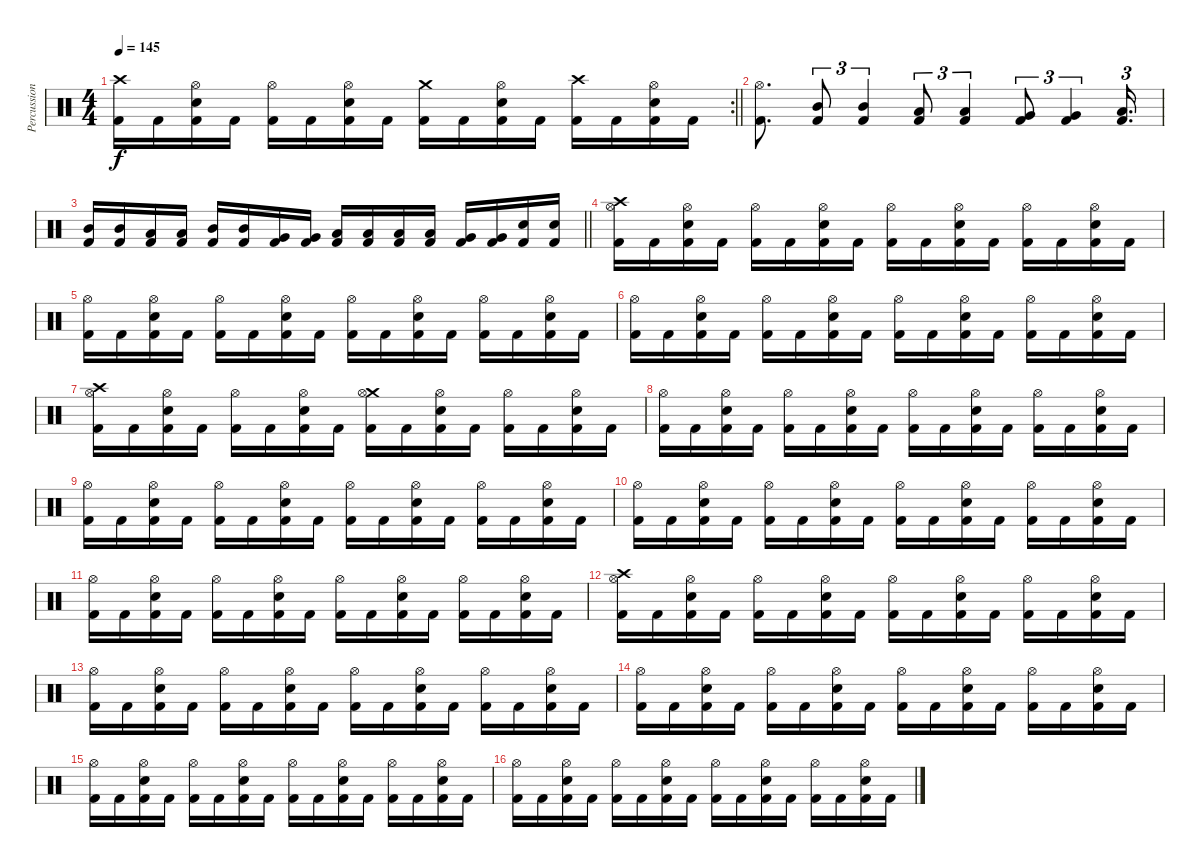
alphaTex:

\track ("Percussion" "Percussion") {instrument percussion}
\staff {score}
\articulation defaults
\rc 2
\ts (4 4)
\tempo 145
\clef neutral
\barLineRight lightlight
\ks c
("Crash high (hit)" "Kick (hit) 2").16{dy f} "Kick (hit) 2".16 ("Hi-Hat (open)" "Electric Snare (hit)" "Kick (hit) 2").16 "Kick (hit) 2".16 ("Hi-Hat (open)" "Kick (hit) 2").16 "Kick (hit) 2".16 ("Hi-Hat (open)" "Electric Snare (hit)" "Kick (hit) 2").16 "Kick (hit) 2".16 ("Crash medium (hit)" "Kick (hit) 2").16 "Kick (hit) 2".16 ("Hi-Hat (open)" "Electric Snare (hit)" "Kick (hit) 2").16 "Kick (hit) 2".16 ("Crash high (hit)" "Kick (hit) 2").16 "Kick (hit) 2".16 ("Hi-Hat (open)" "Electric Snare (hit)" "Kick (hit) 2").16 "Kick (hit) 2".16 |
\section ("" "")
("Hi-Hat (open)" "Kick (hit) 2").8{d} ("Mid Tom (hit)" "Kick (hit) 2").8{tu (3 2)} ("Mid Tom (hit)" "Kick (hit) 2").4{tu (3 2)} ("Low Tom (hit)" "Kick (hit) 2").8{tu (3 2)} ("Low Tom (hit)" "Kick (hit) 2").4{tu (3 2)} ("Very Low Tom (hit)" "Kick (hit) 2").8{tu (3 2)} ("Very Low Tom (hit)" "Kick (hit) 2").4{tu (3 2)} ("Low Floor Tom (hit)" "Kick (hit) 2").16{d tu (3 2)} |
\barLineRight lightlight
("Mid Tom (hit)" "Kick (hit) 2").16 ("Mid Tom (hit)" "Kick (hit) 2").16 ("Low Tom (hit)" "Kick (hit) 2").16 ("Low Tom (hit)" "Kick (hit) 2").16 ("Mid Tom (hit)" "Kick (hit) 2").16 ("Mid Tom (hit)" "Kick (hit) 2").16 ("Very Low Tom (hit)" "Kick (hit) 2").16 ("Very Low Tom (hit)" "Kick (hit) 2").16 ("Low Tom (hit)" "Kick (hit) 2").16 ("Low Tom (hit)" "Kick (hit) 2").16 ("Low Floor Tom (hit)" "Kick (hit) 2").16 ("Low Floor Tom (hit)" "Kick (hit) 2").16 ("Very Low Tom (hit)" "Kick (hit) 2").16 ("Very Low Tom (hit)" "Kick (hit) 2").16 ("Electric Snare (hit)" "Kick (hit) 2").16 ("Electric Snare (hit)" "Kick (hit) 2").16 |
\section ("" "")
("Crash high (hit)" "Hi-Hat (open)" "Kick (hit) 2").16 "Kick (hit) 2".16 ("Hi-Hat (open)" "Electric Snare (hit)" "Kick (hit) 2").16 "Kick (hit) 2".16 ("Hi-Hat (open)" "Kick (hit) 2").16 "Kick (hit) 2".16 ("Hi-Hat (open)" "Electric Snare (hit)" "Kick (hit) 2").16 "Kick (hit) 2".16 ("Hi-Hat (open)" "Kick (hit) 2").16 "Kick (hit) 2".16 ("Hi-Hat (open)" "Electric Snare (hit)" "Kick (hit) 2").16 "Kick (hit) 2".16 ("Hi-Hat (open)" "Kick (hit) 2").16 "Kick (hit) 2".16 ("Hi-Hat (open)" "Electric Snare (hit)" "Kick (hit) 2").16 "Kick (hit) 2".16 |
("Hi-Hat (open)" "Kick (hit) 2").16 "Kick (hit) 2".16 ("Hi-Hat (open)" "Electric Snare (hit)" "Kick (hit) 2").16 "Kick (hit) 2".16 ("Hi-Hat (open)" "Kick (hit) 2").16 "Kick (hit) 2".16 ("Hi-Hat (open)" "Electric Snare (hit)" "Kick (hit) 2").16 "Kick (hit) 2".16 ("Hi-Hat (open)" "Kick (hit) 2").16 "Kick (hit) 2".16 ("Hi-Hat (open)" "Electric Snare (hit)" "Kick (hit) 2").16 "Kick (hit) 2".16 ("Hi-Hat (open)" "Kick (hit) 2").16 "Kick (hit) 2".16 ("Hi-Hat (open)" "Electric Snare (hit)" "Kick (hit) 2").16 "Kick (hit) 2".16 |
("Hi-Hat (open)" "Kick (hit) 2").16 "Kick (hit) 2".16 ("Hi-Hat (open)" "Electric Snare (hit)" "Kick (hit) 2").16 "Kick (hit) 2".16 ("Hi-Hat (open)" "Kick (hit) 2").16 "Kick (hit) 2".16 ("Hi-Hat (open)" "Electric Snare (hit)" "Kick (hit) 2").16 "Kick (hit) 2".16 ("Hi-Hat (open)" "Kick (hit) 2").16 "Kick (hit) 2".16 ("Hi-Hat (open)" "Electric Snare (hit)" "Kick (hit) 2").16 "Kick (hit) 2".16 ("Hi-Hat (open)" "Kick (hit) 2").16 "Kick (hit) 2".16 ("Hi-Hat (open)" "Electric Snare (hit)" "Kick (hit) 2").16 "Kick (hit) 2".16 |
("Crash high (hit)" "Hi-Hat (open)" "Kick (hit) 2").16 "Kick (hit) 2".16 ("Hi-Hat (open)" "Electric Snare (hit)" "Kick (hit) 2").16 "Kick (hit) 2".16 ("Hi-Hat (open)" "Kick (hit) 2").16 "Kick (hit) 2".16 ("Hi-Hat (open)" "Electric Snare (hit)" "Kick (hit) 2").16 "Kick (hit) 2".16 ("Crash medium (hit)" "Hi-Hat (open)" "Kick (hit) 2").16 "Kick (hit) 2".16 ("Hi-Hat (open)" "Electric Snare (hit)" "Kick (hit) 2").16 "Kick (hit) 2".16 ("Hi-Hat (open)" "Kick (hit) 2").16 "Kick (hit) 2".16 ("Hi-Hat (open)" "Electric Snare (hit)" "Kick (hit) 2").16 "Kick (hit) 2".16 |
("Hi-Hat (open)" "Kick (hit) 2").16 "Kick (hit) 2".16 ("Hi-Hat (open)" "Electric Snare (hit)" "Kick (hit) 2").16 "Kick (hit) 2".16 ("Hi-Hat (open)" "Kick (hit) 2").16 "Kick (hit) 2".16 ("Hi-Hat (open)" "Electric Snare (hit)" "Kick (hit) 2").16 "Kick (hit) 2".16 ("Hi-Hat (open)" "Kick (hit) 2").16 "Kick (hit) 2".16 ("Hi-Hat (open)" "Electric Snare (hit)" "Kick (hit) 2").16 "Kick (hit) 2".16 ("Hi-Hat (open)" "Kick (hit) 2").16 "Kick (hit) 2".16 ("Hi-Hat (open)" "Electric Snare (hit)" "Kick (hit) 2").16 "Kick (hit) 2".16 |
("Hi-Hat (open)" "Kick (hit) 2").16 "Kick (hit) 2".16 ("Hi-Hat (open)" "Electric Snare (hit)" "Kick (hit) 2").16 "Kick (hit) 2".16 ("Hi-Hat (open)" "Kick (hit) 2").16 "Kick (hit) 2".16 ("Hi-Hat (open)" "Electric Snare (hit)" "Kick (hit) 2").16 "Kick (hit) 2".16 ("Hi-Hat (open)" "Kick (hit) 2").16 "Kick (hit) 2".16 ("Hi-Hat (open)" "Electric Snare (hit)" "Kick (hit) 2").16 "Kick (hit) 2".16 ("Hi-Hat (open)" "Kick (hit) 2").16 "Kick (hit) 2".16 ("Hi-Hat (open)" "Electric Snare (hit)" "Kick (hit) 2").16 "Kick (hit) 2".16 |
("Hi-Hat (open)" "Kick (hit) 2").16 "Kick (hit) 2".16 ("Hi-Hat (open)" "Electric Snare (hit)" "Kick (hit) 2").16 "Kick (hit) 2".16 ("Hi-Hat (open)" "Kick (hit) 2").16 "Kick (hit) 2".16 ("Hi-Hat (open)" "Electric Snare (hit)" "Kick (hit) 2").16 "Kick (hit) 2".16 ("Hi-Hat (open)" "Kick (hit) 2").16 "Kick (hit) 2".16 ("Hi-Hat (open)" "Electric Snare (hit)" "Kick (hit) 2").16 "Kick (hit) 2".16 ("Hi-Hat (open)" "Kick (hit) 2").16 "Kick (hit) 2".16 ("Hi-Hat (open)" "Electric Snare (hit)" "Kick (hit) 2").16 "Kick (hit) 2".16 |
("Hi-Hat (open)" "Kick (hit) 2").16 "Kick (hit) 2".16 ("Hi-Hat (open)" "Electric Snare (hit)" "Kick (hit) 2").16 "Kick (hit) 2".16 ("Hi-Hat (open)" "Kick (hit) 2").16 "Kick (hit) 2".16 ("Hi-Hat (open)" "Electric Snare (hit)" "Kick (hit) 2").16 "Kick (hit) 2".16 ("Hi-Hat (open)" "Kick (hit) 2").16 "Kick (hit) 2".16 ("Hi-Hat (open)" "Electric Snare (hit)" "Kick (hit) 2").16 "Kick (hit) 2".16 ("Hi-Hat (open)" "Kick (hit) 2").16 "Kick (hit) 2".16 ("Hi-Hat (open)" "Electric Snare (hit)" "Kick (hit) 2").16 "Kick (hit) 2".16 |
("Crash high (hit)" "Hi-Hat (open)" "Kick (hit) 2").16 "Kick (hit) 2".16 ("Hi-Hat (open)" "Electric Snare (hit)" "Kick (hit) 2").16 "Kick (hit) 2".16 ("Hi-Hat (open)" "Kick (hit) 2").16 "Kick (hit) 2".16 ("Hi-Hat (open)" "Electric Snare (hit)" "Kick (hit) 2").16 "Kick (hit) 2".16 ("Hi-Hat (open)" "Kick (hit) 2").16 "Kick (hit) 2".16 ("Hi-Hat (open)" "Electric Snare (hit)" "Kick (hit) 2").16 "Kick (hit) 2".16 ("Hi-Hat (open)" "Kick (hit) 2").16 "Kick (hit) 2".16 ("Hi-Hat (open)" "Electric Snare (hit)" "Kick (hit) 2").16 "Kick (hit) 2".16 |
("Hi-Hat (open)" "Kick (hit) 2").16 "Kick (hit) 2".16 ("Hi-Hat (open)" "Electric Snare (hit)" "Kick (hit) 2").16 "Kick (hit) 2".16 ("Hi-Hat (open)" "Kick (hit) 2").16 "Kick (hit) 2".16 ("Hi-Hat (open)" "Electric Snare (hit)" "Kick (hit) 2").16 "Kick (hit) 2".16 ("Hi-Hat (open)" "Kick (hit) 2").16 "Kick (hit) 2".16 ("Hi-Hat (open)" "Electric Snare (hit)" "Kick (hit) 2").16 "Kick (hit) 2".16 ("Hi-Hat (open)" "Kick (hit) 2").16 "Kick (hit) 2".16 ("Hi-Hat (open)" "Electric Snare (hit)" "Kick (hit) 2").16 "Kick (hit) 2".16 |
("Hi-Hat (open)" "Kick (hit) 2").16 "Kick (hit) 2".16 ("Hi-Hat (open)" "Electric Snare (hit)" "Kick (hit) 2").16 "Kick (hit) 2".16 ("Hi-Hat (open)" "Kick (hit) 2").16 "Kick (hit) 2".16 ("Hi-Hat (open)" "Electric Snare (hit)" "Kick (hit) 2").16 "Kick (hit) 2".16 ("Hi-Hat (open)" "Kick (hit) 2").16 "Kick (hit) 2".16 ("Hi-Hat (open)" "Electric Snare (hit)" "Kick (hit) 2").16 "Kick (hit) 2".16 ("Hi-Hat (open)" "Kick (hit) 2").16 "Kick (hit) 2".16 ("Hi-Hat (open)" "Electric Snare (hit)" "Kick (hit) 2").16 "Kick (hit) 2".16 |
("Hi-Hat (open)" "Kick (hit) 2").16 "Kick (hit) 2".16 ("Hi-Hat (open)" "Electric Snare (hit)" "Kick (hit) 2").16 "Kick (hit) 2".16 ("Hi-Hat (open)" "Kick (hit) 2").16 "Kick (hit) 2".16 ("Hi-Hat (open)" "Electric Snare (hit)" "Kick (hit) 2").16 "Kick (hit) 2".16 ("Hi-Hat (open)" "Kick (hit) 2").16 "Kick (hit) 2".16 ("Hi-Hat (open)" "Electric Snare (hit)" "Kick (hit) 2").16 "Kick (hit) 2".16 ("Hi-Hat (open)" "Kick (hit) 2").16 "Kick (hit) 2".16 ("Hi-Hat (open)" "Electric Snare (hit)" "Kick (hit) 2").16 "Kick (hit) 2".16 |
("Hi-Hat (open)" "Kick (hit) 2").16 "Kick (hit) 2".16 ("Hi-Hat (open)" "Electric Snare (hit)" "Kick (hit) 2").16 "Kick (hit) 2".16 ("Hi-Hat (open)" "Kick (hit) 2").16 "Kick (hit) 2".16 ("Hi-Hat (open)" "Electric Snare (hit)" "Kick (hit) 2").16 "Kick (hit) 2".16 ("Hi-Hat (open)" "Kick (hit) 2").16 "Kick (hit) 2".16 ("Hi-Hat (open)" "Electric Snare (hit)" "Kick (hit) 2").16 "Kick (hit) 2".16 ("Hi-Hat (open)" "Kick (hit) 2").16 "Kick (hit) 2".16 ("Hi-Hat (open)" "Electric Snare (hit)" "Kick (hit) 2").16 "Kick (hit) 2".16
